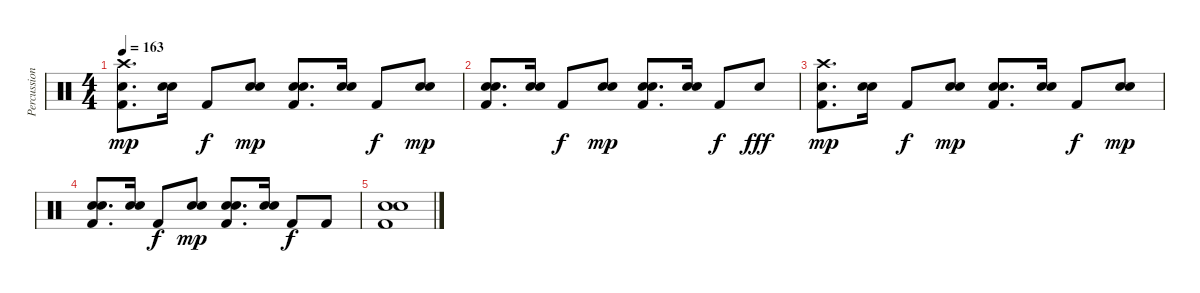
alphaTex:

\track ("Percussion" "Percussion") {instrument percussion}
\staff {score}
\articulation defaults
\ts (4 4)
\tempo 163
\clef neutral
\ks c
("Crash high (hit)" "Snare (hit) 2" "Kick (hit) 2").8{d bd 120 dy mp} ("Snare (hit) 2" "Snare (hit) 2").16{bd 120} "Kick (hit) 2".8{dy f} ("Snare (hit) 2" "Snare (hit) 2").8{bd 120 dy mp} ("Snare (hit) 2" "Snare (hit) 2" "Kick (hit) 2").8{d bd 120} ("Snare (hit) 2" "Snare (hit) 2").16{bd 120} "Kick (hit) 2".8{dy f} ("Snare (hit) 2" "Snare (hit) 2").8{bd 120 dy mp} |
("Snare (hit) 2" "Snare (hit) 2" "Kick (hit) 2").8{d bd 120} ("Snare (hit) 2" "Snare (hit) 2").16{bd 120} "Kick (hit) 2".8{dy f} ("Snare (hit) 2" "Snare (hit) 2").8{bd 120 dy mp} ("Snare (hit) 2" "Snare (hit) 2" "Kick (hit) 2").8{d bd 120} ("Snare (hit) 2" "Snare (hit) 2").16{bd 120} "Kick (hit) 2".8{dy f} "Snare (hit) 2".8{dy fff} |
("Crash high (hit)" "Snare (hit) 2" "Kick (hit) 2").8{d bd 120 dy mp} ("Snare (hit) 2" "Snare (hit) 2").16{bd 120} "Kick (hit) 2".8{dy f} ("Snare (hit) 2" "Snare (hit) 2").8{bd 120 dy mp} ("Snare (hit) 2" "Snare (hit) 2" "Kick (hit) 2").8{d bd 120} ("Snare (hit) 2" "Snare (hit) 2").16{bd 120} "Kick (hit) 2".8{dy f} ("Snare (hit) 2" "Snare (hit) 2").8{bd 120 dy mp} |
("Snare (hit) 2" "Snare (hit) 2" "Kick (hit) 2").8{d bd 120} ("Snare (hit) 2" "Snare (hit) 2").16{bd 120} "Kick (hit) 2".8{dy f} ("Snare (hit) 2" "Snare (hit) 2").8{bd 120 dy mp} ("Snare (hit) 2" "Snare (hit) 2" "Kick (hit) 2").8{d bd 120} ("Snare (hit) 2" "Snare (hit) 2").16{bd 120} "Kick (hit) 2".8{dy f} "Kick (hit) 2".8 |
("Snare (hit) 2" "Snare (hit) 2" "Kick (hit) 2").1{bd 120}
